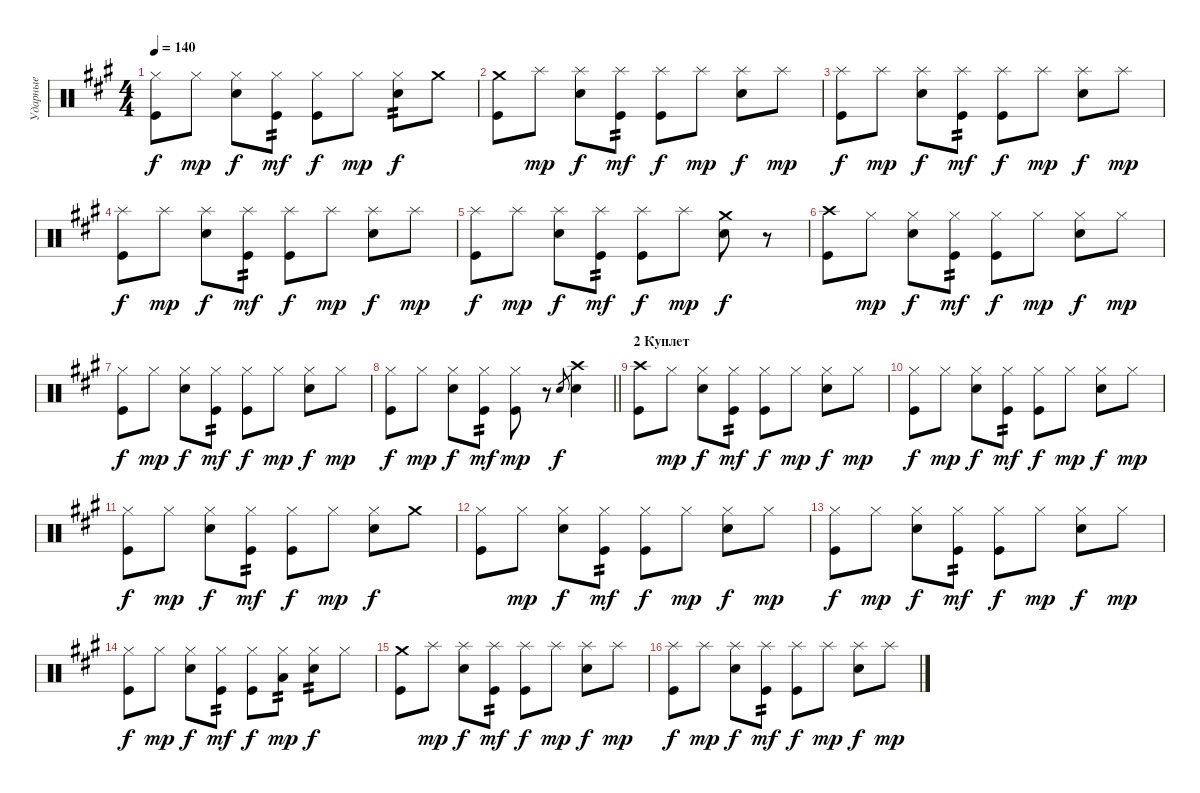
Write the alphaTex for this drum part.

\track ("Ударные" "Ударные") {instrument percussion}
\staff {score}
\articulation defaults
\ts (4 4)
\tempo 140
\clef neutral
\ks f#minor
("Hi-Hat (closed)" "Kick (hit)").8{dy f} "Hi-Hat (closed)".8{dy mp} ("Hi-Hat (closed)" "Snare (hit) 2").8{dy f} ("Hi-Hat (closed)" "Kick (hit)").8{tp 2 dy mf} ("Hi-Hat (closed)" "Kick (hit)").8{dy f} "Hi-Hat (closed)".8{dy mp} ("Hi-Hat (closed)" "Snare (hit) 2").8{tp 2 dy f} "Crash medium (hit)".8 |
("Crash medium (hit)" "Kick (hit)").8 "Splash (hit)".8{dy mp} ("Splash (hit)" "Snare (hit) 2").8{dy f} ("Splash (hit)" "Kick (hit)").8{tp 2 dy mf} ("Splash (hit)" "Kick (hit)").8{dy f} "Splash (hit)".8{dy mp} ("Splash (hit)" "Snare (hit) 2").8{dy f} "Splash (hit)".8{dy mp} |
("Splash (hit)" "Kick (hit)").8{dy f} "Splash (hit)".8{dy mp} ("Splash (hit)" "Snare (hit) 2").8{dy f} ("Splash (hit)" "Kick (hit)").8{tp 2 dy mf} ("Splash (hit)" "Kick (hit)").8{dy f} "Splash (hit)".8{dy mp} ("Splash (hit)" "Snare (hit) 2").8{dy f} "Splash (hit)".8{dy mp} |
("Splash (hit)" "Kick (hit)").8{dy f} "Splash (hit)".8{dy mp} ("Splash (hit)" "Snare (hit) 2").8{dy f} ("Splash (hit)" "Kick (hit)").8{tp 2 dy mf} ("Splash (hit)" "Kick (hit)").8{dy f} "Splash (hit)".8{dy mp} ("Splash (hit)" "Snare (hit) 2").8{dy f} "Splash (hit)".8{dy mp} |
("Splash (hit)" "Kick (hit)").8{dy f} "Splash (hit)".8{dy mp} ("Splash (hit)" "Snare (hit) 2").8{dy f} ("Splash (hit)" "Kick (hit)").8{tp 2 dy mf} ("Splash (hit)" "Kick (hit)").8{dy f} "Splash (hit)".8{dy mp} ("Crash medium (hit)" "Snare (hit) 2").8{dy f} r.8 |
("Crash high (hit)" "Kick (hit)").8 "Hi-Hat (closed)".8{dy mp} ("Hi-Hat (closed)" "Snare (hit) 2").8{dy f} ("Hi-Hat (closed)" "Kick (hit)").8{tp 2 dy mf} ("Hi-Hat (closed)" "Kick (hit)").8{dy f} "Hi-Hat (closed)".8{dy mp} ("Hi-Hat (closed)" "Snare (hit) 2").8{dy f} "Hi-Hat (closed)".8{dy mp} |
("Hi-Hat (closed)" "Kick (hit)").8{dy f} "Hi-Hat (closed)".8{dy mp} ("Hi-Hat (closed)" "Snare (hit) 2").8{dy f} ("Hi-Hat (closed)" "Kick (hit)").8{tp 2 dy mf} ("Hi-Hat (closed)" "Kick (hit)").8{dy f} "Hi-Hat (closed)".8{dy mp} ("Hi-Hat (closed)" "Snare (hit) 2").8{dy f} "Hi-Hat (closed)".8{dy mp} |
\barLineRight lightlight
("Hi-Hat (closed)" "Kick (hit)").8{dy f} "Hi-Hat (closed)".8{dy mp} ("Hi-Hat (closed)" "Snare (hit) 2").8{dy f} ("Hi-Hat (closed)" "Kick (hit)").8{tp 2 dy mf} ("Hi-Hat (closed)" "Kick (hit)").8{dy mp} r.8 "Snare (hit) 2".8{gr dy f} ("Crash high (hit)" "Snare (hit) 2").4 |
\section ("" "2 Куплет")
("Crash high (hit)" "Kick (hit)").8 "Hi-Hat (closed)".8{dy mp} ("Hi-Hat (closed)" "Snare (hit) 2").8{dy f} ("Hi-Hat (closed)" "Kick (hit)").8{tp 2 dy mf} ("Hi-Hat (closed)" "Kick (hit)").8{dy f} "Hi-Hat (closed)".8{dy mp} ("Hi-Hat (closed)" "Snare (hit) 2").8{dy f} "Hi-Hat (closed)".8{dy mp} |
("Hi-Hat (closed)" "Kick (hit)").8{dy f} "Hi-Hat (closed)".8{dy mp} ("Hi-Hat (closed)" "Snare (hit) 2").8{dy f} ("Hi-Hat (closed)" "Kick (hit)").8{tp 2 dy mf} ("Hi-Hat (closed)" "Kick (hit)").8{dy f} "Hi-Hat (closed)".8{dy mp} ("Hi-Hat (closed)" "Snare (hit) 2").8{dy f} "Hi-Hat (closed)".8{dy mp} |
("Hi-Hat (closed)" "Kick (hit)").8{dy f} "Hi-Hat (closed)".8{dy mp} ("Hi-Hat (closed)" "Snare (hit) 2").8{dy f} ("Hi-Hat (closed)" "Kick (hit)").8{tp 2 dy mf} ("Hi-Hat (closed)" "Kick (hit)").8{dy f} "Hi-Hat (closed)".8{dy mp} ("Hi-Hat (closed)" "Snare (hit) 2").8{dy f} "Crash medium (hit)".8 |
("Hi-Hat (closed)" "Kick (hit)").8 "Hi-Hat (closed)".8{dy mp} ("Hi-Hat (closed)" "Snare (hit) 2").8{dy f} ("Hi-Hat (closed)" "Kick (hit)").8{tp 2 dy mf} ("Hi-Hat (closed)" "Kick (hit)").8{dy f} "Hi-Hat (closed)".8{dy mp} ("Hi-Hat (closed)" "Snare (hit) 2").8{dy f} "Hi-Hat (closed)".8{dy mp} |
("Hi-Hat (closed)" "Kick (hit)").8{dy f} "Hi-Hat (closed)".8{dy mp} ("Hi-Hat (closed)" "Snare (hit) 2").8{dy f} ("Hi-Hat (closed)" "Kick (hit)").8{tp 2 dy mf} ("Hi-Hat (closed)" "Kick (hit)").8{dy f} "Hi-Hat (closed)".8{dy mp} ("Hi-Hat (closed)" "Snare (hit) 2").8{dy f} "Hi-Hat (closed)".8{dy mp} |
("Hi-Hat (closed)" "Kick (hit)").8{dy f} "Hi-Hat (closed)".8{dy mp} ("Hi-Hat (closed)" "Snare (hit) 2").8{dy f} ("Hi-Hat (closed)" "Kick (hit)").8{tp 2 dy mf} ("Hi-Hat (closed)" "Kick (hit)").8{dy f} ("Hi-Hat (closed)" "Low Tom (hit)").8{tp 2 dy mp} ("Hi-Hat (closed)" "Snare (hit) 2").8{tp 2 dy f} "Hi-Hat (closed)".8 |
("Crash medium (hit)" "Kick (hit)").8 "Splash (hit)".8{dy mp} ("Splash (hit)" "Snare (hit) 2").8{dy f} ("Splash (hit)" "Kick (hit)").8{tp 2 dy mf} ("Splash (hit)" "Kick (hit)").8{dy f} "Splash (hit)".8{dy mp} ("Splash (hit)" "Snare (hit) 2").8{dy f} "Splash (hit)".8{dy mp} |
("Splash (hit)" "Kick (hit)").8{dy f} "Splash (hit)".8{dy mp} ("Splash (hit)" "Snare (hit) 2").8{dy f} ("Splash (hit)" "Kick (hit)").8{tp 2 dy mf} ("Splash (hit)" "Kick (hit)").8{dy f} "Splash (hit)".8{dy mp} ("Splash (hit)" "Snare (hit) 2").8{dy f} "Splash (hit)".8{dy mp}
